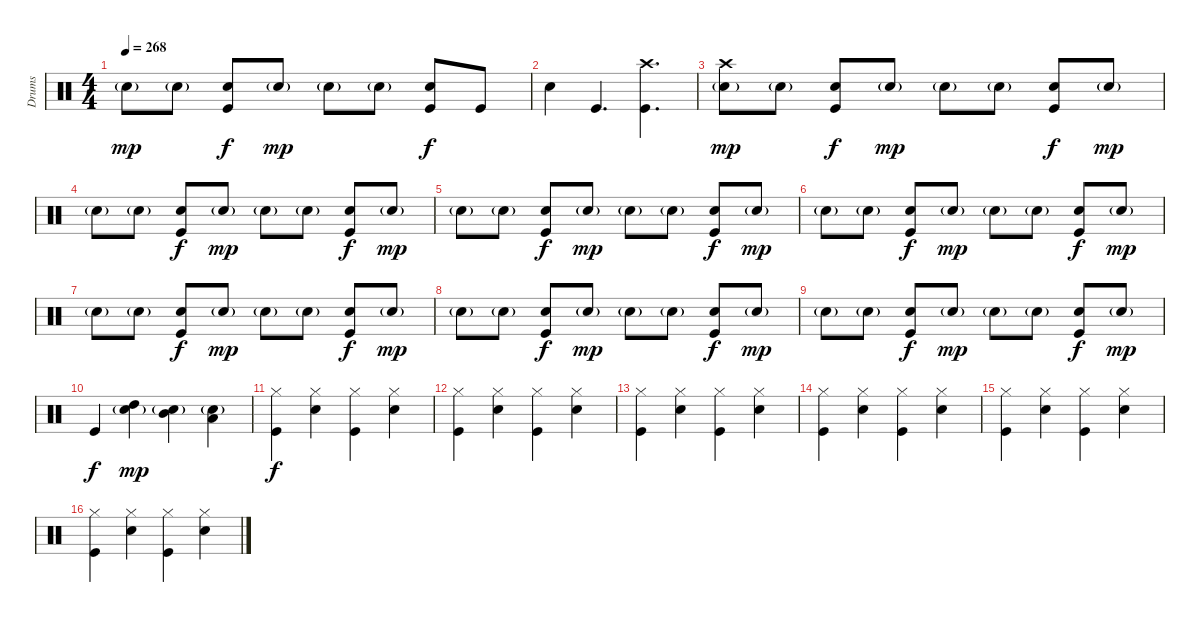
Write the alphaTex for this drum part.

\track ("Drums" "Drums") {instrument percussion}
\staff {score}
\articulation defaults
\ts (4 4)
\tempo 268
\clef neutral
\ks c "Electric Snare (hit)"{g}.8{dy mp} "Electric Snare (hit)"{g}.8
("Electric Snare (hit)" "Kick (hit)").8{dy f} "Electric Snare (hit)"{g}.8{dy mp} "Electric Snare (hit)"{g}.8 "Electric Snare (hit)"{g}.8 ("Electric Snare (hit)" "Kick (hit)").8{dy f} "Kick (hit)".8 |
"Electric Snare (hit)".4 "Kick (hit)".4{d} ("Crash high (hit)" "Kick (hit)").4{d} |
("Crash high (hit)" "Electric Snare (hit)"{g}).8{dy mp} "Electric Snare (hit)"{g}.8 ("Electric Snare (hit)" "Kick (hit)").8{dy f} "Electric Snare (hit)"{g}.8{dy mp} "Electric Snare (hit)"{g}.8 "Electric Snare (hit)"{g}.8 ("Electric Snare (hit)" "Kick (hit)").8{dy f} "Electric Snare (hit)"{g}.8{dy mp} |
"Electric Snare (hit)"{g}.8 "Electric Snare (hit)"{g}.8 ("Electric Snare (hit)" "Kick (hit)").8{dy f} "Electric Snare (hit)"{g}.8{dy mp} "Electric Snare (hit)"{g}.8 "Electric Snare (hit)"{g}.8 ("Electric Snare (hit)" "Kick (hit)").8{dy f} "Electric Snare (hit)"{g}.8{dy mp} |
"Electric Snare (hit)"{g}.8 "Electric Snare (hit)"{g}.8 ("Electric Snare (hit)" "Kick (hit)").8{dy f} "Electric Snare (hit)"{g}.8{dy mp} "Electric Snare (hit)"{g}.8 "Electric Snare (hit)"{g}.8 ("Electric Snare (hit)" "Kick (hit)").8{dy f} "Electric Snare (hit)"{g}.8{dy mp} |
"Electric Snare (hit)"{g}.8 "Electric Snare (hit)"{g}.8 ("Electric Snare (hit)" "Kick (hit)").8{dy f} "Electric Snare (hit)"{g}.8{dy mp} "Electric Snare (hit)"{g}.8 "Electric Snare (hit)"{g}.8 ("Electric Snare (hit)" "Kick (hit)").8{dy f} "Electric Snare (hit)"{g}.8{dy mp} |
"Electric Snare (hit)"{g}.8 "Electric Snare (hit)"{g}.8 ("Electric Snare (hit)" "Kick (hit)").8{dy f} "Electric Snare (hit)"{g}.8{dy mp} "Electric Snare (hit)"{g}.8 "Electric Snare (hit)"{g}.8 ("Electric Snare (hit)" "Kick (hit)").8{dy f} "Electric Snare (hit)"{g}.8{dy mp} |
"Electric Snare (hit)"{g}.8 "Electric Snare (hit)"{g}.8 ("Electric Snare (hit)" "Kick (hit)").8{dy f} "Electric Snare (hit)"{g}.8{dy mp} "Electric Snare (hit)"{g}.8 "Electric Snare (hit)"{g}.8 ("Electric Snare (hit)" "Kick (hit)").8{dy f} "Electric Snare (hit)"{g}.8{dy mp} |
"Electric Snare (hit)"{g}.8 "Electric Snare (hit)"{g}.8 ("Electric Snare (hit)" "Kick (hit)").8{dy f} "Electric Snare (hit)"{g}.8{dy mp} "Electric Snare (hit)"{g}.8 "Electric Snare (hit)"{g}.8 ("Electric Snare (hit)" "Kick (hit)").8{dy f} "Electric Snare (hit)"{g}.8{dy mp} |
"Kick (hit)".4{dy f} ("High Tom (hit)" "Electric Snare (hit)"{g}).4{dy mp} ("Mid Tom (hit)" "Electric Snare (hit)"{g}).4 ("Low Tom (hit)" "Electric Snare (hit)"{g}).4 |
("Hi-Hat (closed)" "Kick (hit)").4{dy f} ("Hi-Hat (closed)" "Electric Snare (hit)").4 ("Hi-Hat (closed)" "Kick (hit)").4 ("Hi-Hat (closed)" "Electric Snare (hit)").4 |
("Hi-Hat (closed)" "Kick (hit)").4 ("Hi-Hat (closed)" "Electric Snare (hit)").4 ("Hi-Hat (closed)" "Kick (hit)").4 ("Hi-Hat (closed)" "Electric Snare (hit)").4 |
("Hi-Hat (closed)" "Kick (hit)").4 ("Hi-Hat (closed)" "Electric Snare (hit)").4 ("Hi-Hat (closed)" "Kick (hit)").4 ("Hi-Hat (closed)" "Electric Snare (hit)").4 |
("Hi-Hat (closed)" "Kick (hit)").4 ("Hi-Hat (closed)" "Electric Snare (hit)").4 ("Hi-Hat (closed)" "Kick (hit)").4 ("Hi-Hat (closed)" "Electric Snare (hit)").4 |
("Hi-Hat (closed)" "Kick (hit)").4 ("Hi-Hat (closed)" "Electric Snare (hit)").4 ("Hi-Hat (closed)" "Kick (hit)").4 ("Hi-Hat (closed)" "Electric Snare (hit)").4 |
("Hi-Hat (closed)" "Kick (hit)").4 ("Hi-Hat (closed)" "Electric Snare (hit)").4 ("Hi-Hat (closed)" "Kick (hit)").4 ("Hi-Hat (closed)" "Electric Snare (hit)").4
